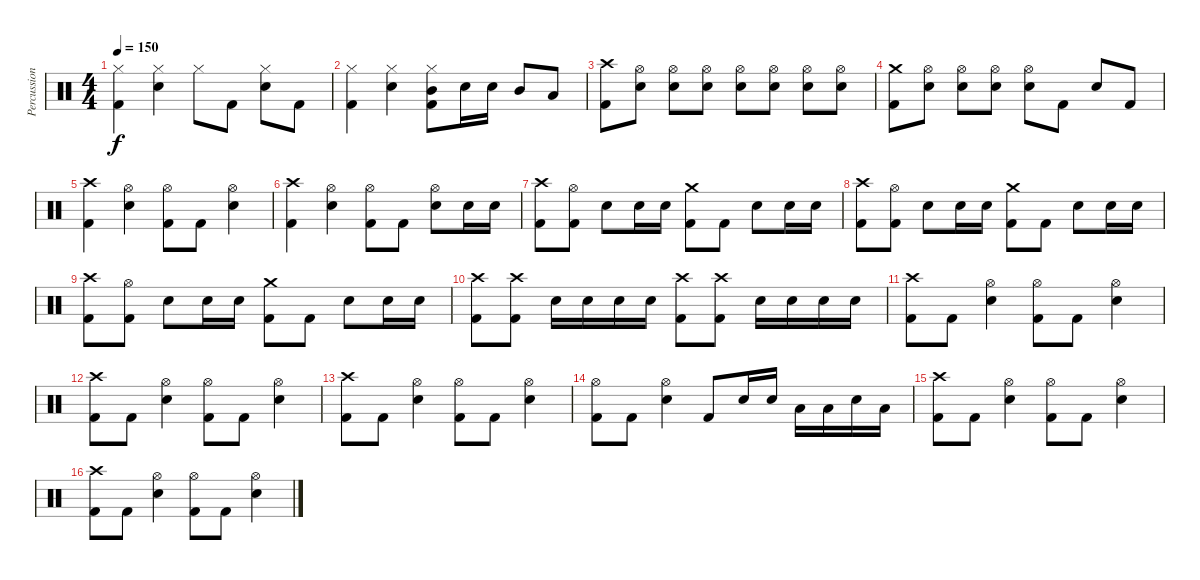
\track ("Percussion" "Percussion") {instrument percussion}
\staff {score}
\articulation defaults
\ts (4 4)
\tempo 150
\clef neutral
\ks c
("Hi-Hat (closed)" "Kick (hit) 2").4{dy f} ("Hi-Hat (closed)" "Snare (hit) 2").4 "Hi-Hat (closed)".8 "Kick (hit) 2".8 ("Hi-Hat (closed)" "Snare (hit) 2").8 "Kick (hit) 2".8 |
("Hi-Hat (closed)" "Kick (hit) 2").4 ("Hi-Hat (closed)" "Snare (hit) 2").4 ("Hi-Hat (closed)" "Mid Tom (hit)" "Kick (hit) 2").8 "Snare (hit) 2".16 "Snare (hit) 2".16 "Mid Tom (hit)".8 "Low Floor Tom (hit)".8 |
("Crash high (hit)" "Kick (hit) 2").8 ("Hi-Hat (open)" "Snare (hit) 2").8{volume 8} ("Hi-Hat (open)" "Snare (hit) 2").8{volume 13} ("Hi-Hat (open)" "Snare (hit) 2").8 ("Hi-Hat (open)" "Snare (hit) 2").8 ("Hi-Hat (open)" "Snare (hit) 2").8 ("Hi-Hat (open)" "Snare (hit) 2").8 ("Hi-Hat (open)" "Snare (hit) 2").8 |
("Crash medium (hit)" "Kick (hit) 2").8 ("Hi-Hat (open)" "Snare (hit) 2").8{volume 8} ("Hi-Hat (open)" "Snare (hit) 2").8{volume 13} ("Hi-Hat (open)" "Snare (hit) 2").8 ("Hi-Hat (open)" "Snare (hit) 2").8 "Kick (hit) 2".8 "Snare (hit) 2".8 "Kick (hit) 2".8 |
("Crash high (hit)" "Kick (hit) 2").4 ("Hi-Hat (open)" "Snare (hit) 2").4 ("Hi-Hat (open)" "Kick (hit) 2").8 "Kick (hit) 2".8 ("Hi-Hat (open)" "Snare (hit) 2").4 |
("Crash high (hit)" "Kick (hit) 2").4 ("Hi-Hat (open)" "Snare (hit) 2").4 ("Hi-Hat (open)" "Kick (hit) 2").8 "Kick (hit) 2".8 ("Hi-Hat (open)" "Snare (hit) 2").8 "Snare (hit) 2".16 "Snare (hit) 2".16 |
("Crash high (hit)" "Kick (hit) 2").8 ("Hi-Hat (open)" "Kick (hit) 2").8 "Snare (hit) 2".8 "Snare (hit) 2".16 "Snare (hit) 2".16 ("Crash medium (hit)" "Kick (hit) 2").8 "Kick (hit) 2".8 "Snare (hit) 2".8 "Snare (hit) 2".16 "Snare (hit) 2".16 |
("Crash high (hit)" "Kick (hit) 2").8 ("Hi-Hat (open)" "Kick (hit) 2").8 "Snare (hit) 2".8 "Snare (hit) 2".16 "Snare (hit) 2".16 ("Crash medium (hit)" "Kick (hit) 2").8 "Kick (hit) 2".8 "Snare (hit) 2".8 "Snare (hit) 2".16 "Snare (hit) 2".16 |
("Crash high (hit)" "Kick (hit) 2").8 ("Hi-Hat (open)" "Kick (hit) 2").8 "Snare (hit) 2".8 "Snare (hit) 2".16 "Snare (hit) 2".16 ("Crash medium (hit)" "Kick (hit) 2").8 "Kick (hit) 2".8 "Snare (hit) 2".8 "Snare (hit) 2".16 "Snare (hit) 2".16 |
("Crash high (hit)" "Kick (hit) 2").8 ("Crash high (hit)" "Kick (hit) 2").8 "Snare (hit) 2".16 "Snare (hit) 2".16 "Snare (hit) 2".16 "Snare (hit) 2".16 ("Crash high (hit)" "Kick (hit) 2").8 ("Crash high (hit)" "Kick (hit) 2").8 "Snare (hit) 2".16 "Snare (hit) 2".16 "Snare (hit) 2".16 "Snare (hit) 2".16 |
("Crash high (hit)" "Kick (hit) 2").8 "Kick (hit) 2".8 ("Hi-Hat (open)" "Snare (hit) 2").4 ("Hi-Hat (open)" "Kick (hit) 2").8 "Kick (hit) 2".8 ("Hi-Hat (open)" "Snare (hit) 2").4 |
("Crash high (hit)" "Kick (hit) 2").8 "Kick (hit) 2".8 ("Hi-Hat (open)" "Snare (hit) 2").4 ("Hi-Hat (open)" "Kick (hit) 2").8 "Kick (hit) 2".8 ("Hi-Hat (open)" "Snare (hit) 2").4 |
("Crash high (hit)" "Kick (hit) 2").8 "Kick (hit) 2".8 ("Hi-Hat (open)" "Snare (hit) 2").4 ("Hi-Hat (open)" "Kick (hit) 2").8 "Kick (hit) 2".8 ("Hi-Hat (open)" "Snare (hit) 2").4 |
("Hi-Hat (open)" "Kick (hit) 2").8 "Kick (hit) 2".8 ("Hi-Hat (open)" "Snare (hit) 2").4 "Kick (hit) 2".8 "Snare (hit) 2".16 "Snare (hit) 2".16 "Low Tom (hit)".16 "Low Tom (hit)".16 "Snare (hit) 2".16 "Low Floor Tom (hit)".16 |
("Crash high (hit)" "Kick (hit) 2").8 "Kick (hit) 2".8 ("Hi-Hat (open)" "Snare (hit) 2").4 ("Hi-Hat (open)" "Kick (hit) 2").8 "Kick (hit) 2".8 ("Hi-Hat (open)" "Snare (hit) 2").4 |
("Crash high (hit)" "Kick (hit) 2").8 "Kick (hit) 2".8 ("Hi-Hat (open)" "Snare (hit) 2").4 ("Hi-Hat (open)" "Kick (hit) 2").8 "Kick (hit) 2".8 ("Hi-Hat (open)" "Snare (hit) 2").4
